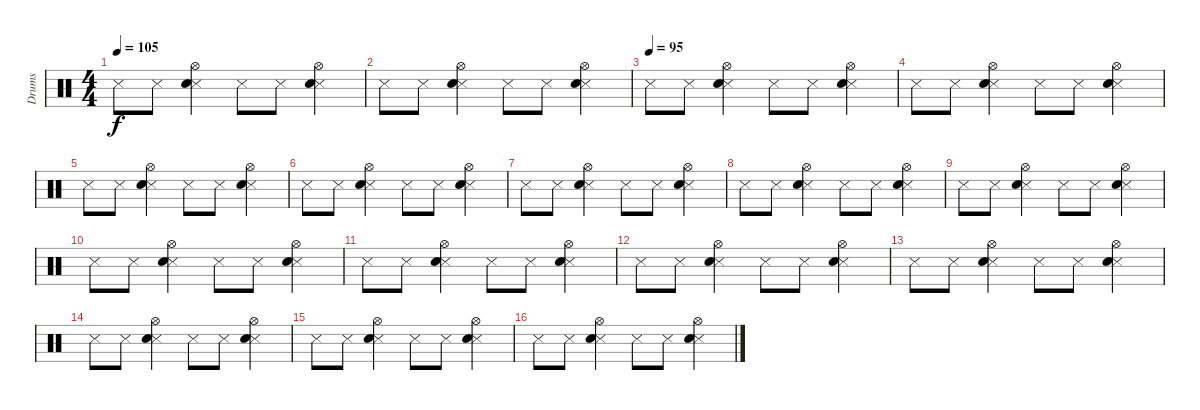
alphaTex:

\track ("Drums" "Drums") {instrument percussion}
\staff {score}
\articulation defaults
\ts (4 4)
\tempo 105
\clef neutral
\ks c "Snare (side stick) 3".8{dy f} "Snare (side stick) 3".8
("Snare (side stick) 3" "Hi-Hat (open)" "Snare (hit) 2").4 "Snare (side stick) 3".8 "Snare (side stick) 3".8 ("Snare (side stick) 3" "Hi-Hat (open)" "Snare (hit) 2").4 |
"Snare (side stick) 3".8 "Snare (side stick) 3".8 ("Snare (side stick) 3" "Hi-Hat (open)" "Snare (hit) 2").4 "Snare (side stick) 3".8 "Snare (side stick) 3".8 ("Snare (side stick) 3" "Hi-Hat (open)" "Snare (hit) 2").4 |
\tempo (95)
"Snare (side stick) 3".8 "Snare (side stick) 3".8 ("Snare (side stick) 3" "Hi-Hat (open)" "Snare (hit) 2").4 "Snare (side stick) 3".8 "Snare (side stick) 3".8 ("Snare (side stick) 3" "Hi-Hat (open)" "Snare (hit) 2").4 |
"Snare (side stick) 3".8 "Snare (side stick) 3".8 ("Snare (side stick) 3" "Hi-Hat (open)" "Snare (hit) 2").4 "Snare (side stick) 3".8 "Snare (side stick) 3".8 ("Snare (side stick) 3" "Hi-Hat (open)" "Snare (hit) 2").4 |
"Snare (side stick) 3".8 "Snare (side stick) 3".8 ("Snare (side stick) 3" "Hi-Hat (open)" "Snare (hit) 2").4 "Snare (side stick) 3".8 "Snare (side stick) 3".8 ("Snare (side stick) 3" "Hi-Hat (open)" "Snare (hit) 2").4 |
"Snare (side stick) 3".8 "Snare (side stick) 3".8 ("Snare (side stick) 3" "Hi-Hat (open)" "Snare (hit) 2").4 "Snare (side stick) 3".8 "Snare (side stick) 3".8 ("Snare (side stick) 3" "Hi-Hat (open)" "Snare (hit) 2").4 |
"Snare (side stick) 3".8 "Snare (side stick) 3".8 ("Snare (side stick) 3" "Hi-Hat (open)" "Snare (hit) 2").4 "Snare (side stick) 3".8 "Snare (side stick) 3".8 ("Snare (side stick) 3" "Hi-Hat (open)" "Snare (hit) 2").4 |
"Snare (side stick) 3".8 "Snare (side stick) 3".8 ("Snare (side stick) 3" "Hi-Hat (open)" "Snare (hit) 2").4 "Snare (side stick) 3".8 "Snare (side stick) 3".8 ("Snare (side stick) 3" "Hi-Hat (open)" "Snare (hit) 2").4 |
"Snare (side stick) 3".8 "Snare (side stick) 3".8 ("Snare (side stick) 3" "Hi-Hat (open)" "Snare (hit) 2").4 "Snare (side stick) 3".8 "Snare (side stick) 3".8 ("Snare (side stick) 3" "Hi-Hat (open)" "Snare (hit) 2").4 |
"Snare (side stick) 3".8 "Snare (side stick) 3".8 ("Snare (side stick) 3" "Hi-Hat (open)" "Snare (hit) 2").4 "Snare (side stick) 3".8 "Snare (side stick) 3".8 ("Snare (side stick) 3" "Hi-Hat (open)" "Snare (hit) 2").4 |
"Snare (side stick) 3".8 "Snare (side stick) 3".8 ("Snare (side stick) 3" "Hi-Hat (open)" "Snare (hit) 2").4 "Snare (side stick) 3".8 "Snare (side stick) 3".8 ("Snare (side stick) 3" "Hi-Hat (open)" "Snare (hit) 2").4 |
"Snare (side stick) 3".8 "Snare (side stick) 3".8 ("Snare (side stick) 3" "Hi-Hat (open)" "Snare (hit) 2").4 "Snare (side stick) 3".8 "Snare (side stick) 3".8 ("Snare (side stick) 3" "Hi-Hat (open)" "Snare (hit) 2").4 |
"Snare (side stick) 3".8 "Snare (side stick) 3".8 ("Snare (side stick) 3" "Hi-Hat (open)" "Snare (hit) 2").4 "Snare (side stick) 3".8 "Snare (side stick) 3".8 ("Snare (side stick) 3" "Hi-Hat (open)" "Snare (hit) 2").4 |
"Snare (side stick) 3".8 "Snare (side stick) 3".8 ("Snare (side stick) 3" "Hi-Hat (open)" "Snare (hit) 2").4 "Snare (side stick) 3".8 "Snare (side stick) 3".8 ("Snare (side stick) 3" "Hi-Hat (open)" "Snare (hit) 2").4 |
"Snare (side stick) 3".8 "Snare (side stick) 3".8 ("Snare (side stick) 3" "Hi-Hat (open)" "Snare (hit) 2").4 "Snare (side stick) 3".8 "Snare (side stick) 3".8 ("Snare (side stick) 3" "Hi-Hat (open)" "Snare (hit) 2").4 |
"Snare (side stick) 3".8 "Snare (side stick) 3".8 ("Snare (side stick) 3" "Hi-Hat (open)" "Snare (hit) 2").4 "Snare (side stick) 3".8 "Snare (side stick) 3".8 ("Snare (side stick) 3" "Hi-Hat (open)" "Snare (hit) 2").4
